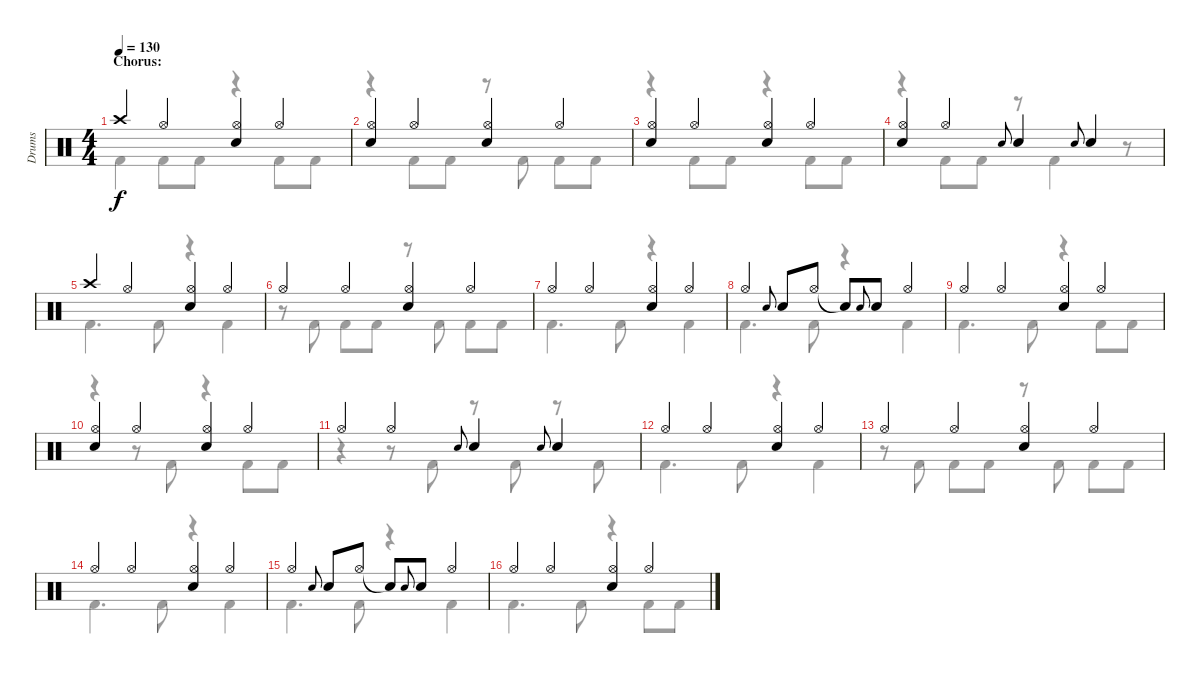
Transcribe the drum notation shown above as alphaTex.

\track ("Drums" "Drums") {instrument percussion}
\staff {score}
\articulation defaults
\voice
\ts (4 4)
\section ("" "Chorus:")
\tempo 130
\clef neutral
\ks c "Crash high (hit)".4{dy f} "Hi-Hat (open)".4
("Hi-Hat (open)" "Electric Snare (hit)").4 "Hi-Hat (open)".4 |
("Hi-Hat (open)" "Electric Snare (hit)").4 "Hi-Hat (open)".4 ("Hi-Hat (open)" "Electric Snare (hit)").4 "Hi-Hat (open)".4 |
("Hi-Hat (open)" "Electric Snare (hit)").4 "Hi-Hat (open)".4 ("Hi-Hat (open)" "Electric Snare (hit)").4 "Hi-Hat (open)".4 |
("Hi-Hat (open)" "Electric Snare (hit)").4 "Hi-Hat (open)".4 "Electric Snare (hit)".8{gr onbeat} "Electric Snare (hit)".4 "Electric Snare (hit)".8{gr onbeat} "Electric Snare (hit)".4 |
"Crash high (hit)".4 "Hi-Hat (open)".4 ("Hi-Hat (open)" "Electric Snare (hit)").4 "Hi-Hat (open)".4 |
"Hi-Hat (open)".4 "Hi-Hat (open)".4 ("Hi-Hat (open)" "Electric Snare (hit)").4 "Hi-Hat (open)".4 |
"Hi-Hat (open)".4 "Hi-Hat (open)".4 ("Hi-Hat (open)" "Electric Snare (hit)").4 "Hi-Hat (open)".4 |
"Hi-Hat (open)".4 "Electric Snare (hit)".8{gr onbeat} "Electric Snare (hit)".8 "Hi-Hat (open)".8 "Snare (hit)"{t}.8 "Electric Snare (hit)".8{gr onbeat} "Electric Snare (hit)".8 "Hi-Hat (open)".4 |
"Hi-Hat (open)".4 "Hi-Hat (open)".4 ("Hi-Hat (open)" "Electric Snare (hit)").4 "Hi-Hat (open)".4 |
("Hi-Hat (open)" "Electric Snare (hit)").4 "Hi-Hat (open)".4 ("Hi-Hat (open)" "Electric Snare (hit)").4 "Hi-Hat (open)".4 |
"Hi-Hat (open)".4 "Hi-Hat (open)".4 "Electric Snare (hit)".8{gr onbeat} "Electric Snare (hit)".4 "Electric Snare (hit)".8{gr onbeat} "Electric Snare (hit)".4 |
"Hi-Hat (open)".4 "Hi-Hat (open)".4 ("Hi-Hat (open)" "Electric Snare (hit)").4 "Hi-Hat (open)".4 |
"Hi-Hat (open)".4 "Hi-Hat (open)".4 ("Hi-Hat (open)" "Electric Snare (hit)").4 "Hi-Hat (open)".4 |
"Hi-Hat (open)".4 "Hi-Hat (open)".4 ("Hi-Hat (open)" "Electric Snare (hit)").4 "Hi-Hat (open)".4 |
"Hi-Hat (open)".4 "Electric Snare (hit)".8{gr onbeat} "Electric Snare (hit)".8 "Hi-Hat (open)".8 "Snare (hit)"{t}.8 "Electric Snare (hit)".8{gr onbeat} "Electric Snare (hit)".8 "Hi-Hat (open)".4 |
"Hi-Hat (open)".4 "Hi-Hat (open)".4 ("Hi-Hat (open)" "Electric Snare (hit)").4 "Hi-Hat (open)".4
\voice
\clef neutral
\ottava regular
\simile none
\ks c "Kick (hit) 2".4{dy f} "Kick (hit) 2".8 "Kick (hit) 2".8
r.4 "Kick (hit) 2".8 "Kick (hit) 2".8 |
r.4 "Kick (hit) 2".8 "Kick (hit) 2".8 r.8 "Kick (hit) 2".8 "Kick (hit) 2".8 "Kick (hit) 2".8 |
r.4 "Kick (hit) 2".8 "Kick (hit) 2".8 r.4 "Kick (hit) 2".8 "Kick (hit) 2".8 |
r.4 "Kick (hit) 2".8 "Kick (hit) 2".8 r.8 "Kick (hit) 2".4 r.8 |
"Kick (hit) 2".4{d} "Kick (hit) 2".8 r.4 "Kick (hit) 2".4 |
r.8 "Kick (hit) 2".8 "Kick (hit) 2".8 "Kick (hit) 2".8 r.8 "Kick (hit) 2".8 "Kick (hit) 2".8 "Kick (hit) 2".8 |
"Kick (hit) 2".4{d} "Kick (hit) 2".8 r.4 "Kick (hit) 2".4 |
"Kick (hit) 2".4{d} "Kick (hit) 2".8 r.4 "Kick (hit) 2".4 |
"Kick (hit) 2".4{d} "Kick (hit) 2".8 r.4 "Kick (hit) 2".8{beam merge} "Kick (hit) 2".8 |
r.4 r.8 "Kick (hit) 2".8 r.4 "Kick (hit) 2".8 "Kick (hit) 2".8 |
r.4 r.8 "Kick (hit) 2".8 r.8 "Kick (hit) 2".8 r.8 "Kick (hit) 2".8 |
"Kick (hit) 2".4{d} "Kick (hit) 2".8 r.4 "Kick (hit) 2".4 |
r.8 "Kick (hit) 2".8 "Kick (hit) 2".8 "Kick (hit) 2".8 r.8 "Kick (hit) 2".8 "Kick (hit) 2".8 "Kick (hit) 2".8 |
"Kick (hit) 2".4{d} "Kick (hit) 2".8 r.4 "Kick (hit) 2".4 |
"Kick (hit) 2".4{d} "Kick (hit) 2".8 r.4 "Kick (hit) 2".4 |
"Kick (hit) 2".4{d} "Kick (hit) 2".8 r.4 "Kick (hit) 2".8 "Kick (hit) 2".8
